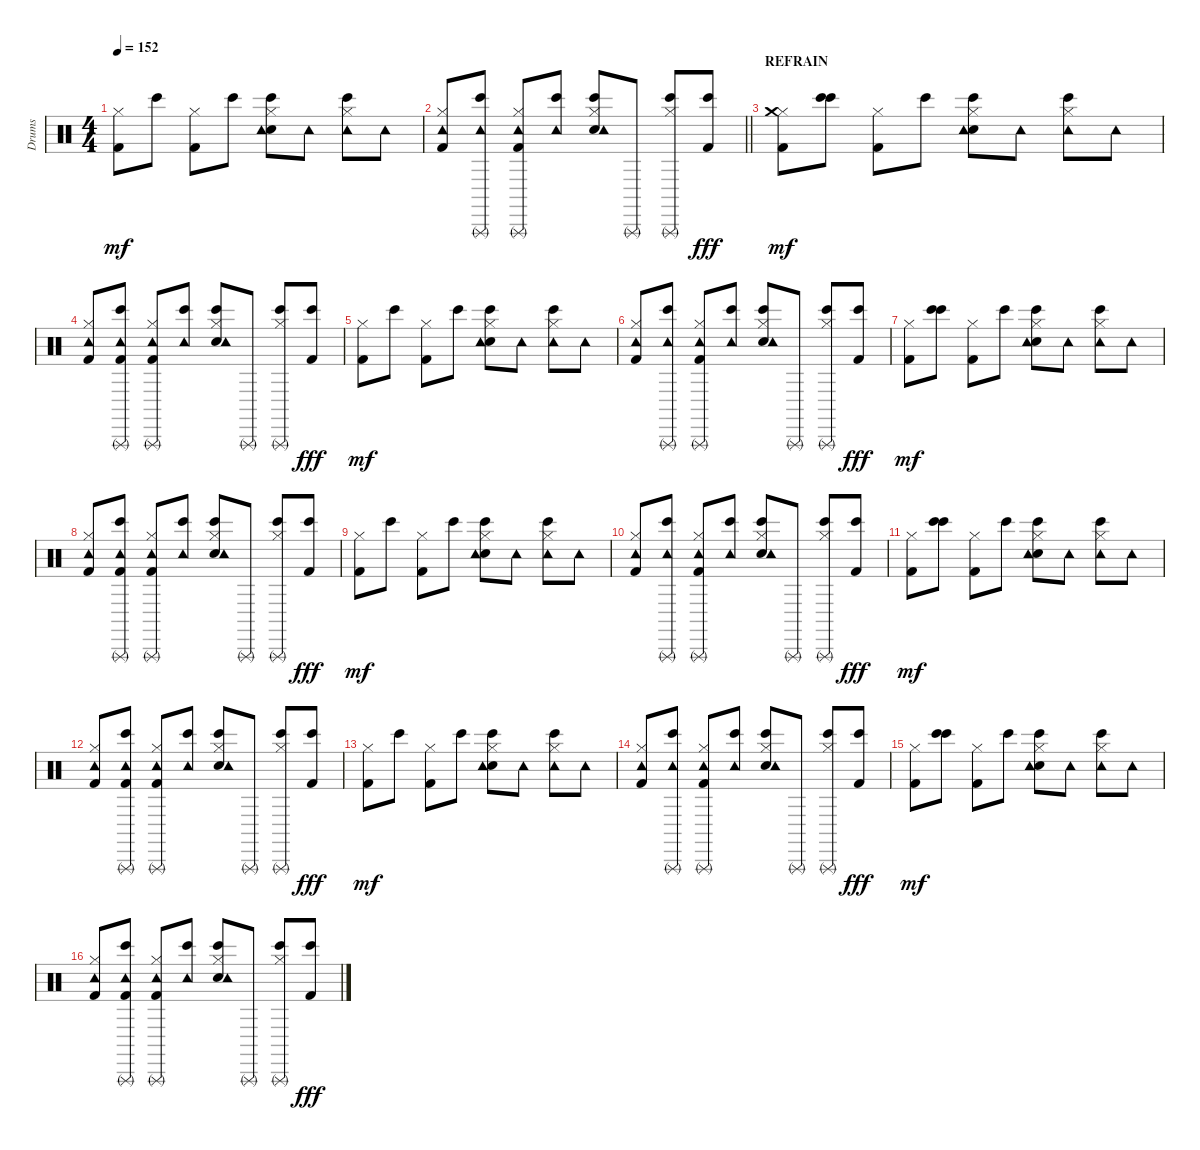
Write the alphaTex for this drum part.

\track ("Drums" "Drums") {instrument percussion}
\staff {score}
\articulation defaults
\ts (4 4)
\tempo 152
\clef neutral
\ks c
("Kick (hit) 2" "Hi-Hat (closed)").8{dy mf} "Bongo High (hit)".8 ("Kick (hit) 2" "Hi-Hat (closed)").8 "Bongo High (hit)".8 ("Bongo High (hit)" "Electric Snare (hit)" "Hi-Hat (closed)" "Tambourine (hit)").8 "Tambourine (hit)".8 ("Tambourine (hit)" "Bongo High (hit)" "Hi-Hat (closed)").8 "Tambourine (hit)".8 |
\barLineRight lightlight
("Tambourine (hit)" "Kick (hit) 2" "Hi-Hat (closed)").8 ("Tambourine (hit)" "Bongo High (hit)" "Triangle (rnute)").8 ("Kick (hit) 2" "Hi-Hat (closed)" "Triangle (rnute)" "Tambourine (hit)").8 ("Tambourine (hit)" "Bongo High (hit)").8 ("Bongo High (hit)" "Electric Snare (hit)" "Hi-Hat (closed)" "Tambourine (hit)").8 "Triangle (rnute)".8 ("Bongo High (hit)" "Hi-Hat (closed)" "Triangle (rnute)").8 ("Bongo High (hit)" "Kick (hit) 2").8{dy fff} |
\section ("" "REFRAIN")
("Kick (hit) 2" "Hi-Hat (closed)" "Crash medium (hit)").8{dy mf} ("Bongo High (hit)" "Bongo High (hit)").8 ("Kick (hit) 2" "Hi-Hat (closed)").8 "Bongo High (hit)".8 ("Bongo High (hit)" "Electric Snare (hit)" "Hi-Hat (closed)" "Tambourine (hit)").8 "Tambourine (hit)".8 ("Tambourine (hit)" "Bongo High (hit)" "Hi-Hat (closed)").8 "Tambourine (hit)".8 |
("Tambourine (hit)" "Kick (hit) 2" "Hi-Hat (closed)").8 ("Tambourine (hit)" "Bongo High (hit)" "Kick (hit) 2" "Triangle (rnute)").8 ("Kick (hit) 2" "Hi-Hat (closed)" "Triangle (rnute)" "Tambourine (hit)").8 ("Tambourine (hit)" "Bongo High (hit)").8 ("Bongo High (hit)" "Electric Snare (hit)" "Hi-Hat (closed)" "Tambourine (hit)").8 "Triangle (rnute)".8 ("Bongo High (hit)" "Hi-Hat (closed)" "Triangle (rnute)").8 ("Bongo High (hit)" "Kick (hit) 2").8{dy fff} |
("Kick (hit) 2" "Hi-Hat (closed)").8{dy mf} "Bongo High (hit)".8 ("Kick (hit) 2" "Hi-Hat (closed)").8 "Bongo High (hit)".8 ("Bongo High (hit)" "Electric Snare (hit)" "Hi-Hat (closed)" "Tambourine (hit)").8 "Tambourine (hit)".8 ("Tambourine (hit)" "Bongo High (hit)" "Hi-Hat (closed)").8 "Tambourine (hit)".8 |
("Tambourine (hit)" "Kick (hit) 2" "Hi-Hat (closed)").8 ("Tambourine (hit)" "Bongo High (hit)" "Triangle (rnute)").8 ("Kick (hit) 2" "Hi-Hat (closed)" "Triangle (rnute)" "Tambourine (hit)").8 ("Tambourine (hit)" "Bongo High (hit)").8 ("Bongo High (hit)" "Electric Snare (hit)" "Hi-Hat (closed)" "Tambourine (hit)").8 "Triangle (rnute)".8 ("Bongo High (hit)" "Hi-Hat (closed)" "Triangle (rnute)").8 ("Bongo High (hit)" "Kick (hit) 2").8{dy fff} |
("Kick (hit) 2" "Hi-Hat (closed)").8{dy mf} ("Bongo High (hit)" "Bongo High (hit)").8 ("Kick (hit) 2" "Hi-Hat (closed)").8 "Bongo High (hit)".8 ("Bongo High (hit)" "Electric Snare (hit)" "Hi-Hat (closed)" "Tambourine (hit)").8 "Tambourine (hit)".8 ("Tambourine (hit)" "Bongo High (hit)" "Hi-Hat (closed)").8 "Tambourine (hit)".8 |
("Tambourine (hit)" "Kick (hit) 2" "Hi-Hat (closed)").8 ("Tambourine (hit)" "Bongo High (hit)" "Kick (hit) 2" "Triangle (rnute)").8 ("Kick (hit) 2" "Hi-Hat (closed)" "Triangle (rnute)" "Tambourine (hit)").8 ("Tambourine (hit)" "Bongo High (hit)").8 ("Bongo High (hit)" "Electric Snare (hit)" "Hi-Hat (closed)" "Tambourine (hit)").8 "Triangle (rnute)".8 ("Bongo High (hit)" "Hi-Hat (closed)" "Triangle (rnute)").8 ("Bongo High (hit)" "Kick (hit) 2").8{dy fff} |
("Kick (hit) 2" "Hi-Hat (closed)").8{dy mf} "Bongo High (hit)".8 ("Kick (hit) 2" "Hi-Hat (closed)").8 "Bongo High (hit)".8 ("Bongo High (hit)" "Electric Snare (hit)" "Hi-Hat (closed)" "Tambourine (hit)").8 "Tambourine (hit)".8 ("Tambourine (hit)" "Bongo High (hit)" "Hi-Hat (closed)").8 "Tambourine (hit)".8 |
("Tambourine (hit)" "Kick (hit) 2" "Hi-Hat (closed)").8 ("Tambourine (hit)" "Bongo High (hit)" "Triangle (rnute)").8 ("Kick (hit) 2" "Hi-Hat (closed)" "Triangle (rnute)" "Tambourine (hit)").8 ("Tambourine (hit)" "Bongo High (hit)").8 ("Bongo High (hit)" "Electric Snare (hit)" "Hi-Hat (closed)" "Tambourine (hit)").8 "Triangle (rnute)".8 ("Bongo High (hit)" "Hi-Hat (closed)" "Triangle (rnute)").8 ("Bongo High (hit)" "Kick (hit) 2").8{dy fff} |
("Kick (hit) 2" "Hi-Hat (closed)").8{dy mf} ("Bongo High (hit)" "Bongo High (hit)").8 ("Kick (hit) 2" "Hi-Hat (closed)").8 "Bongo High (hit)".8 ("Bongo High (hit)" "Electric Snare (hit)" "Hi-Hat (closed)" "Tambourine (hit)").8 "Tambourine (hit)".8 ("Tambourine (hit)" "Bongo High (hit)" "Hi-Hat (closed)").8 "Tambourine (hit)".8 |
("Tambourine (hit)" "Kick (hit) 2" "Hi-Hat (closed)").8 ("Tambourine (hit)" "Bongo High (hit)" "Kick (hit) 2" "Triangle (rnute)").8 ("Kick (hit) 2" "Hi-Hat (closed)" "Triangle (rnute)" "Tambourine (hit)").8 ("Tambourine (hit)" "Bongo High (hit)").8 ("Bongo High (hit)" "Electric Snare (hit)" "Hi-Hat (closed)" "Tambourine (hit)").8 "Triangle (rnute)".8 ("Bongo High (hit)" "Hi-Hat (closed)" "Triangle (rnute)").8 ("Bongo High (hit)" "Kick (hit) 2").8{dy fff} |
("Kick (hit) 2" "Hi-Hat (closed)").8{dy mf} "Bongo High (hit)".8 ("Kick (hit) 2" "Hi-Hat (closed)").8 "Bongo High (hit)".8 ("Bongo High (hit)" "Electric Snare (hit)" "Hi-Hat (closed)" "Tambourine (hit)").8 "Tambourine (hit)".8 ("Tambourine (hit)" "Bongo High (hit)" "Hi-Hat (closed)").8 "Tambourine (hit)".8 |
("Tambourine (hit)" "Kick (hit) 2" "Hi-Hat (closed)").8 ("Tambourine (hit)" "Bongo High (hit)" "Triangle (rnute)").8 ("Kick (hit) 2" "Hi-Hat (closed)" "Triangle (rnute)" "Tambourine (hit)").8 ("Tambourine (hit)" "Bongo High (hit)").8 ("Bongo High (hit)" "Electric Snare (hit)" "Hi-Hat (closed)" "Tambourine (hit)").8 "Triangle (rnute)".8 ("Bongo High (hit)" "Hi-Hat (closed)" "Triangle (rnute)").8 ("Bongo High (hit)" "Kick (hit) 2").8{dy fff} |
("Kick (hit) 2" "Hi-Hat (closed)").8{dy mf} ("Bongo High (hit)" "Bongo High (hit)").8 ("Kick (hit) 2" "Hi-Hat (closed)").8 "Bongo High (hit)".8 ("Bongo High (hit)" "Electric Snare (hit)" "Hi-Hat (closed)" "Tambourine (hit)").8 "Tambourine (hit)".8 ("Tambourine (hit)" "Bongo High (hit)" "Hi-Hat (closed)").8 "Tambourine (hit)".8 |
("Tambourine (hit)" "Kick (hit) 2" "Hi-Hat (closed)").8 ("Tambourine (hit)" "Bongo High (hit)" "Kick (hit) 2" "Triangle (rnute)").8 ("Kick (hit) 2" "Hi-Hat (closed)" "Triangle (rnute)" "Tambourine (hit)").8 ("Tambourine (hit)" "Bongo High (hit)").8 ("Bongo High (hit)" "Electric Snare (hit)" "Hi-Hat (closed)" "Tambourine (hit)").8 "Triangle (rnute)".8 ("Bongo High (hit)" "Hi-Hat (closed)" "Triangle (rnute)").8 ("Bongo High (hit)" "Kick (hit) 2").8{dy fff}
